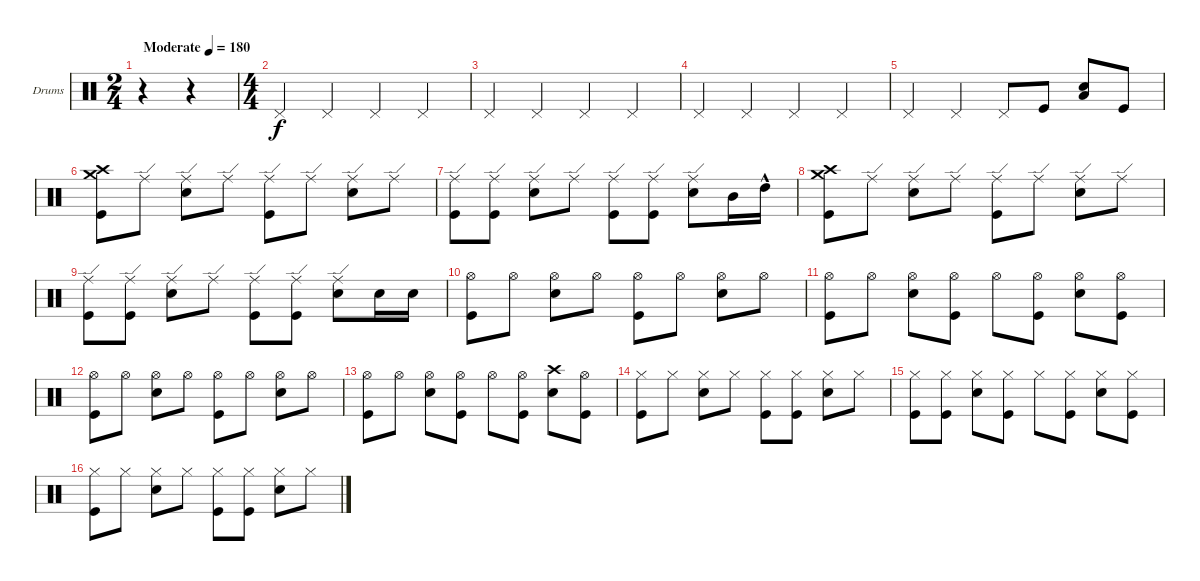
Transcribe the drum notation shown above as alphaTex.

\bracketExtendMode groupsimilarinstruments
\firstSystemTrackNameOrientation horizontal
\otherSystemsTrackNameOrientation horizontal
\track ("Drumkit" "Drums") {instrument percussion}
\staff {score}
\articulation defaults
\ts (2 4)
\beaming (8 2 2)
\tempo (180 "Moderate")
\clef neutral
\ks c
r.4{dy f} r.4 |
\ts (4 4)
\beaming (8 2 2 2 2)
"Pedal Hi-Hat (hit)".4 "Pedal Hi-Hat (hit)".4 "Pedal Hi-Hat (hit)".4 "Pedal Hi-Hat (hit)".4 |
"Pedal Hi-Hat (hit)".4 "Pedal Hi-Hat (hit)".4 "Pedal Hi-Hat (hit)".4 "Pedal Hi-Hat (hit)".4 |
"Pedal Hi-Hat (hit)".4 "Pedal Hi-Hat (hit)".4 "Pedal Hi-Hat (hit)".4 "Pedal Hi-Hat (hit)".4 |
"Pedal Hi-Hat (hit)".4 "Pedal Hi-Hat (hit)".4 "Pedal Hi-Hat (hit)".8 "Kick (hit)".8 ("Snare (hit) 2" "Low Tom (hit)").8 "Kick (hit)".8 |
("Kick (hit)" "Crash high (hit)" "Crash medium (hit)").8 "Ride (edge)".8 ("Snare (hit) 2" "Ride (edge)").8 "Ride (edge)".8 ("Kick (hit)" "Ride (edge)").8 "Ride (edge)".8 ("Snare (hit) 2" "Ride (edge)").8 "Ride (edge)".8 |
("Kick (hit)" "Ride (edge)").8 ("Kick (hit)" "Ride (edge)").8 ("Snare (hit) 2" "Ride (edge)").8 "Ride (edge)".8 ("Kick (hit)" "Ride (edge)").8 ("Kick (hit)" "Ride (edge)").8 ("Snare (hit) 2" "Ride (edge)").8 "Mid Tom (hit)".16 "High Tom (hit)"{hac}.16 |
("Kick (hit)" "Crash high (hit)" "Crash medium (hit)").8 "Ride (edge)".8 ("Snare (hit) 2" "Ride (edge)").8 "Ride (edge)".8 ("Kick (hit)" "Ride (edge)").8 "Ride (edge)".8 ("Snare (hit) 2" "Ride (edge)").8 "Ride (edge)".8 |
("Kick (hit)" "Ride (edge)").8 ("Kick (hit)" "Ride (edge)").8 ("Snare (hit) 2" "Ride (edge)").8 "Ride (edge)".8 ("Kick (hit)" "Ride (edge)").8 ("Kick (hit)" "Ride (edge)").8 ("Snare (hit) 2" "Ride (edge)").8 "Snare (hit) 2".16 "Snare (hit) 2".16 |
("Hi-Hat (open)" "Kick (hit)").8 "Hi-Hat (open)".8 ("Hi-Hat (open)" "Snare (hit) 2").8 "Hi-Hat (open)".8 ("Hi-Hat (open)" "Kick (hit)").8 "Hi-Hat (open)".8 ("Hi-Hat (open)" "Snare (hit) 2").8 "Hi-Hat (open)".8 |
("Hi-Hat (open)" "Kick (hit)").8 "Hi-Hat (open)".8 ("Hi-Hat (open)" "Snare (hit) 2").8 ("Hi-Hat (open)" "Kick (hit)").8 "Hi-Hat (open)".8 ("Hi-Hat (open)" "Kick (hit)").8 ("Hi-Hat (open)" "Snare (hit) 2").8 ("Hi-Hat (open)" "Kick (hit)").8 |
("Hi-Hat (open)" "Kick (hit)").8 "Hi-Hat (open)".8 ("Hi-Hat (open)" "Snare (hit) 2").8 "Hi-Hat (open)".8 ("Hi-Hat (open)" "Kick (hit)").8 "Hi-Hat (open)".8 ("Hi-Hat (open)" "Snare (hit) 2").8 "Hi-Hat (open)".8 |
("Hi-Hat (open)" "Kick (hit)").8 "Hi-Hat (open)".8 ("Hi-Hat (open)" "Snare (hit) 2").8 ("Hi-Hat (open)" "Kick (hit)").8 "Hi-Hat (open)".8 ("Hi-Hat (open)" "Kick (hit)").8 ("Crash high (hit)" "Snare (hit) 2").8 ("Hi-Hat (open)" "Kick (hit)").8 |
("Hi-Hat (closed)" "Kick (hit)").8 "Hi-Hat (closed)".8 ("Hi-Hat (closed)" "Snare (hit) 2").8 "Hi-Hat (closed)".8 ("Hi-Hat (closed)" "Kick (hit)").8 ("Hi-Hat (closed)" "Kick (hit)").8 ("Hi-Hat (closed)" "Snare (hit) 2").8 "Hi-Hat (closed)".8 |
("Hi-Hat (closed)" "Kick (hit)").8 ("Hi-Hat (closed)" "Kick (hit)").8 ("Hi-Hat (closed)" "Snare (hit) 2").8 ("Hi-Hat (closed)" "Kick (hit)").8 "Hi-Hat (closed)".8 ("Hi-Hat (closed)" "Kick (hit)").8 ("Hi-Hat (closed)" "Snare (hit) 2").8 ("Hi-Hat (closed)" "Kick (hit)").8 |
("Hi-Hat (closed)" "Kick (hit)").8 "Hi-Hat (closed)".8 ("Hi-Hat (closed)" "Snare (hit) 2").8 "Hi-Hat (closed)".8 ("Hi-Hat (closed)" "Kick (hit)").8 ("Hi-Hat (closed)" "Kick (hit)").8 ("Hi-Hat (closed)" "Snare (hit) 2").8 "Hi-Hat (closed)".8
